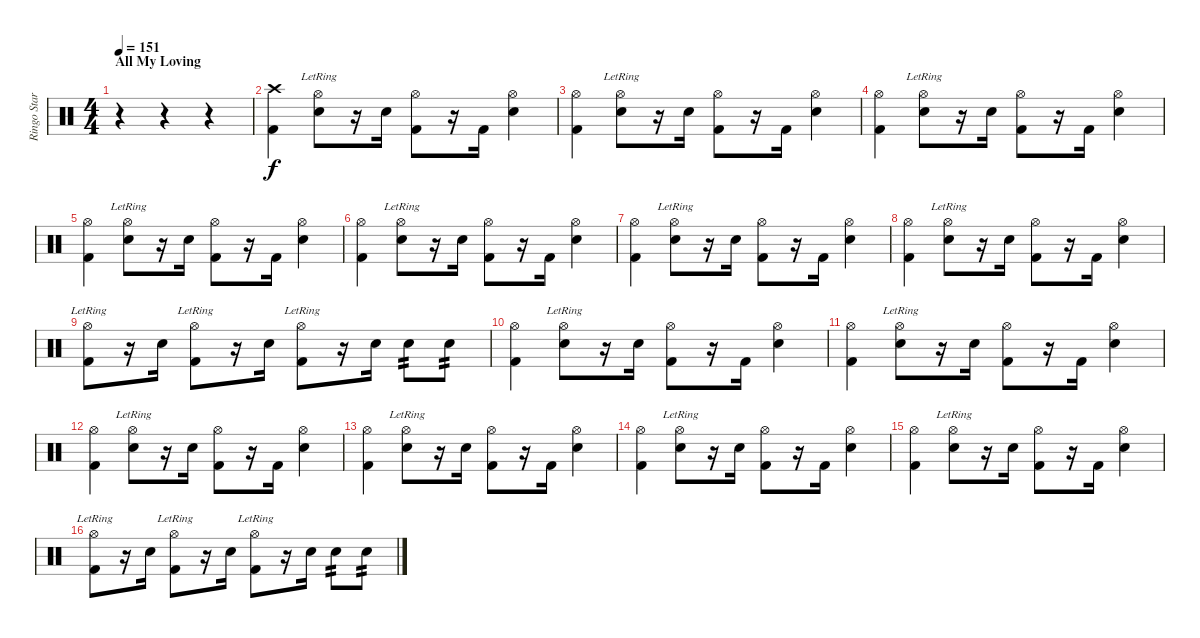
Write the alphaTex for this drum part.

\track ("Ringo Star" "Ringo Star") {instrument percussion}
\staff {score}
\articulation defaults
\ts (4 4)
\section ("" "All My Loving")
\tempo 151
\clef neutral
\ks c
r.4{dy f} r.4 r.4 |
("Crash high (hit)" "Kick (hit) 2").4 ("Hi-Hat (open)"{lr} "Snare (hit) 2").8 r.16 "Snare (hit) 2".16 ("Hi-Hat (open)" "Kick (hit) 2").8 r.16 "Kick (hit) 2".16 ("Hi-Hat (open)" "Snare (hit) 2").4 |
("Hi-Hat (open)" "Kick (hit) 2").4 ("Hi-Hat (open)"{lr} "Snare (hit) 2").8 r.16 "Snare (hit) 2".16 ("Hi-Hat (open)" "Kick (hit) 2").8 r.16 "Kick (hit) 2".16 ("Hi-Hat (open)" "Snare (hit) 2").4 |
("Hi-Hat (open)" "Kick (hit) 2").4 ("Hi-Hat (open)"{lr} "Snare (hit) 2").8 r.16 "Snare (hit) 2".16 ("Hi-Hat (open)" "Kick (hit) 2").8 r.16 "Kick (hit) 2".16 ("Hi-Hat (open)" "Snare (hit) 2").4 |
("Hi-Hat (open)" "Kick (hit) 2").4 ("Hi-Hat (open)"{lr} "Snare (hit) 2").8 r.16 "Snare (hit) 2".16 ("Hi-Hat (open)" "Kick (hit) 2").8 r.16 "Kick (hit) 2".16 ("Hi-Hat (open)" "Snare (hit) 2").4 |
("Hi-Hat (open)" "Kick (hit) 2").4 ("Hi-Hat (open)"{lr} "Snare (hit) 2").8 r.16 "Snare (hit) 2".16 ("Hi-Hat (open)" "Kick (hit) 2").8 r.16 "Kick (hit) 2".16 ("Hi-Hat (open)" "Snare (hit) 2").4 |
("Hi-Hat (open)" "Kick (hit) 2").4 ("Hi-Hat (open)"{lr} "Snare (hit) 2").8 r.16 "Snare (hit) 2".16 ("Hi-Hat (open)" "Kick (hit) 2").8 r.16 "Kick (hit) 2".16 ("Hi-Hat (open)" "Snare (hit) 2").4 |
("Hi-Hat (open)" "Kick (hit) 2").4 ("Hi-Hat (open)"{lr} "Snare (hit) 2").8 r.16 "Snare (hit) 2".16 ("Hi-Hat (open)" "Kick (hit) 2").8 r.16 "Kick (hit) 2".16 ("Hi-Hat (open)" "Snare (hit) 2").4 |
("Hi-Hat (open)"{lr} "Kick (hit) 2").8 r.16 "Snare (hit) 2".16 ("Hi-Hat (open)"{lr} "Kick (hit) 2").8 r.16 "Snare (hit) 2".16 ("Hi-Hat (open)"{lr} "Kick (hit) 2").8 r.16 "Snare (hit) 2".16 "Snare (hit) 2".8{tp 2} "Snare (hit) 2".8{tp 2} |
("Hi-Hat (open)" "Kick (hit) 2").4 ("Hi-Hat (open)"{lr} "Snare (hit) 2").8 r.16 "Snare (hit) 2".16 ("Hi-Hat (open)" "Kick (hit) 2").8 r.16 "Kick (hit) 2".16 ("Hi-Hat (open)" "Snare (hit) 2").4 |
("Hi-Hat (open)" "Kick (hit) 2").4 ("Hi-Hat (open)"{lr} "Snare (hit) 2").8 r.16 "Snare (hit) 2".16 ("Hi-Hat (open)" "Kick (hit) 2").8 r.16 "Kick (hit) 2".16 ("Hi-Hat (open)" "Snare (hit) 2").4 |
("Hi-Hat (open)" "Kick (hit) 2").4 ("Hi-Hat (open)"{lr} "Snare (hit) 2").8 r.16 "Snare (hit) 2".16 ("Hi-Hat (open)" "Kick (hit) 2").8 r.16 "Kick (hit) 2".16 ("Hi-Hat (open)" "Snare (hit) 2").4 |
("Hi-Hat (open)" "Kick (hit) 2").4 ("Hi-Hat (open)"{lr} "Snare (hit) 2").8 r.16 "Snare (hit) 2".16 ("Hi-Hat (open)" "Kick (hit) 2").8 r.16 "Kick (hit) 2".16 ("Hi-Hat (open)" "Snare (hit) 2").4 |
("Hi-Hat (open)" "Kick (hit) 2").4 ("Hi-Hat (open)"{lr} "Snare (hit) 2").8 r.16 "Snare (hit) 2".16 ("Hi-Hat (open)" "Kick (hit) 2").8 r.16 "Kick (hit) 2".16 ("Hi-Hat (open)" "Snare (hit) 2").4 |
("Hi-Hat (open)" "Kick (hit) 2").4 ("Hi-Hat (open)"{lr} "Snare (hit) 2").8 r.16 "Snare (hit) 2".16 ("Hi-Hat (open)" "Kick (hit) 2").8 r.16 "Kick (hit) 2".16 ("Hi-Hat (open)" "Snare (hit) 2").4 |
("Hi-Hat (open)"{lr} "Kick (hit) 2").8 r.16 "Snare (hit) 2".16 ("Hi-Hat (open)"{lr} "Kick (hit) 2").8 r.16 "Snare (hit) 2".16 ("Hi-Hat (open)"{lr} "Kick (hit) 2").8 r.16 "Snare (hit) 2".16 "Snare (hit) 2".8{tp 2} "Snare (hit) 2".8{tp 2}
